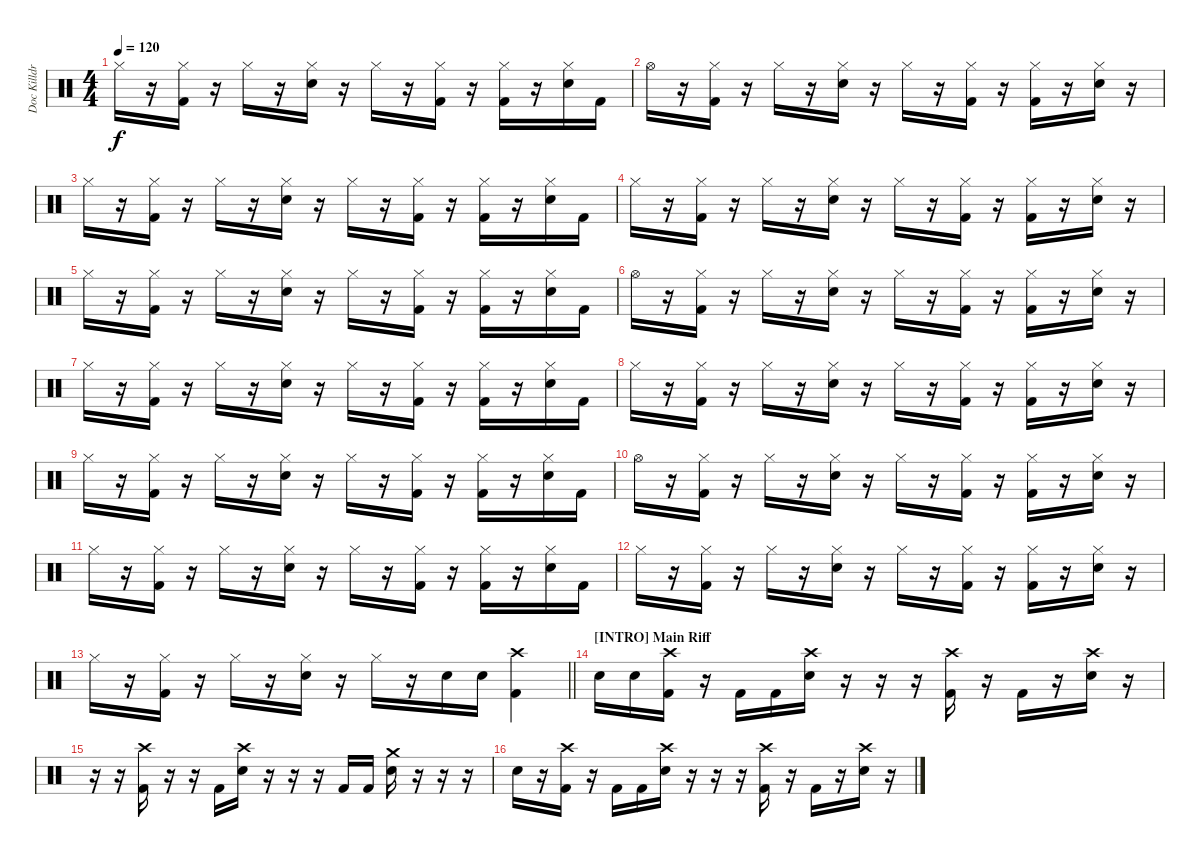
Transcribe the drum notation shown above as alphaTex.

\track ("Doc Killdrums (What else?)" "Doc Killdr") {instrument percussion}
\staff {score}
\articulation defaults
\ts (4 4)
\tempo 120
\clef neutral
\ks c "Hi-Hat (closed)".16{dy f}
r.16 ("Kick (hit) 2" "Hi-Hat (closed)").16 r.16 "Hi-Hat (closed)".16 r.16 ("Snare (hit) 2" "Hi-Hat (closed)").16 r.16 "Hi-Hat (closed)".16 r.16 ("Kick (hit) 2" "Hi-Hat (closed)").16 r.16 ("Kick (hit) 2" "Hi-Hat (closed)").16 r.16 ("Snare (hit) 2" "Hi-Hat (closed)").16 "Kick (hit) 2".16 |
"Hi-Hat (open)".16 r.16 ("Kick (hit) 2" "Hi-Hat (closed)").16 r.16 "Hi-Hat (closed)".16 r.16 ("Snare (hit) 2" "Hi-Hat (closed)").16 r.16 "Hi-Hat (closed)".16 r.16 ("Kick (hit) 2" "Hi-Hat (closed)").16 r.16 ("Kick (hit) 2" "Hi-Hat (closed)").16 r.16 ("Snare (hit) 2" "Hi-Hat (closed)").16 r.16 |
"Hi-Hat (closed)".16 r.16 ("Kick (hit) 2" "Hi-Hat (closed)").16 r.16 "Hi-Hat (closed)".16 r.16 ("Snare (hit) 2" "Hi-Hat (closed)").16 r.16 "Hi-Hat (closed)".16 r.16 ("Kick (hit) 2" "Hi-Hat (closed)").16 r.16 ("Kick (hit) 2" "Hi-Hat (closed)").16 r.16 ("Snare (hit) 2" "Hi-Hat (closed)").16 "Kick (hit) 2".16 |
"Hi-Hat (closed)".16 r.16 ("Kick (hit) 2" "Hi-Hat (closed)").16 r.16 "Hi-Hat (closed)".16 r.16 ("Snare (hit) 2" "Hi-Hat (closed)").16 r.16 "Hi-Hat (closed)".16 r.16 ("Kick (hit) 2" "Hi-Hat (closed)").16 r.16 ("Kick (hit) 2" "Hi-Hat (closed)").16 r.16 ("Snare (hit) 2" "Hi-Hat (closed)").16 r.16 |
"Hi-Hat (closed)".16 r.16 ("Kick (hit) 2" "Hi-Hat (closed)").16 r.16 "Hi-Hat (closed)".16 r.16 ("Snare (hit) 2" "Hi-Hat (closed)").16 r.16 "Hi-Hat (closed)".16 r.16 ("Kick (hit) 2" "Hi-Hat (closed)").16 r.16 ("Kick (hit) 2" "Hi-Hat (closed)").16 r.16 ("Snare (hit) 2" "Hi-Hat (closed)").16 "Kick (hit) 2".16 |
"Hi-Hat (open)".16 r.16 ("Kick (hit) 2" "Hi-Hat (closed)").16 r.16 "Hi-Hat (closed)".16 r.16 ("Snare (hit) 2" "Hi-Hat (closed)").16 r.16 "Hi-Hat (closed)".16 r.16 ("Kick (hit) 2" "Hi-Hat (closed)").16 r.16 ("Kick (hit) 2" "Hi-Hat (closed)").16 r.16 ("Snare (hit) 2" "Hi-Hat (closed)").16 r.16 |
"Hi-Hat (closed)".16 r.16 ("Kick (hit) 2" "Hi-Hat (closed)").16 r.16 "Hi-Hat (closed)".16 r.16 ("Snare (hit) 2" "Hi-Hat (closed)").16 r.16 "Hi-Hat (closed)".16 r.16 ("Kick (hit) 2" "Hi-Hat (closed)").16 r.16 ("Kick (hit) 2" "Hi-Hat (closed)").16 r.16 ("Snare (hit) 2" "Hi-Hat (closed)").16 "Kick (hit) 2".16 |
"Hi-Hat (closed)".16 r.16 ("Kick (hit) 2" "Hi-Hat (closed)").16 r.16 "Hi-Hat (closed)".16 r.16 ("Snare (hit) 2" "Hi-Hat (closed)").16 r.16 "Hi-Hat (closed)".16 r.16 ("Kick (hit) 2" "Hi-Hat (closed)").16 r.16 ("Kick (hit) 2" "Hi-Hat (closed)").16 r.16 ("Snare (hit) 2" "Hi-Hat (closed)").16 r.16 |
"Hi-Hat (closed)".16 r.16 ("Kick (hit) 2" "Hi-Hat (closed)").16 r.16 "Hi-Hat (closed)".16 r.16 ("Snare (hit) 2" "Hi-Hat (closed)").16 r.16 "Hi-Hat (closed)".16 r.16 ("Kick (hit) 2" "Hi-Hat (closed)").16 r.16 ("Kick (hit) 2" "Hi-Hat (closed)").16 r.16 ("Snare (hit) 2" "Hi-Hat (closed)").16 "Kick (hit) 2".16 |
"Hi-Hat (open)".16 r.16 ("Kick (hit) 2" "Hi-Hat (closed)").16 r.16 "Hi-Hat (closed)".16 r.16 ("Snare (hit) 2" "Hi-Hat (closed)").16 r.16 "Hi-Hat (closed)".16 r.16 ("Kick (hit) 2" "Hi-Hat (closed)").16 r.16 ("Kick (hit) 2" "Hi-Hat (closed)").16 r.16 ("Snare (hit) 2" "Hi-Hat (closed)").16 r.16 |
"Hi-Hat (closed)".16 r.16 ("Kick (hit) 2" "Hi-Hat (closed)").16 r.16 "Hi-Hat (closed)".16 r.16 ("Snare (hit) 2" "Hi-Hat (closed)").16 r.16 "Hi-Hat (closed)".16 r.16 ("Kick (hit) 2" "Hi-Hat (closed)").16 r.16 ("Kick (hit) 2" "Hi-Hat (closed)").16 r.16 ("Snare (hit) 2" "Hi-Hat (closed)").16 "Kick (hit) 2".16 |
"Hi-Hat (closed)".16 r.16 ("Kick (hit) 2" "Hi-Hat (closed)").16 r.16 "Hi-Hat (closed)".16 r.16 ("Snare (hit) 2" "Hi-Hat (closed)").16 r.16 "Hi-Hat (closed)".16 r.16 ("Kick (hit) 2" "Hi-Hat (closed)").16 r.16 ("Kick (hit) 2" "Hi-Hat (closed)").16 r.16 ("Snare (hit) 2" "Hi-Hat (closed)").16 r.16 |
\barLineRight lightlight "Hi-Hat (closed)".16
r.16 ("Kick (hit) 2" "Hi-Hat (closed)").16 r.16 "Hi-Hat (closed)".16 r.16 ("Snare (hit) 2" "Hi-Hat (closed)").16 r.16 "Hi-Hat (closed)".16 r.16 "Snare (hit) 2".16 "Snare (hit) 2".16 ("Kick (hit) 2" "Crash high (hit)").4 |
\section ("" "[INTRO] Main Riff")
"Snare (hit) 2".16 "Snare (hit) 2".16 ("Kick (hit) 2" "Crash high (hit)").16 r.16 "Kick (hit) 2".16 "Kick (hit) 2".16 ("Snare (hit) 2" "Crash high (hit)").16 r.16 r.16 r.16 ("Kick (hit) 2" "Crash high (hit)").16 r.16 "Kick (hit) 2".16 r.16 ("Snare (hit) 2" "Crash high (hit)").16 r.16 |
r.16 r.16 ("Kick (hit) 2" "Crash high (hit)").16 r.16 r.16 "Kick (hit) 2".16 ("Snare (hit) 2" "Crash high (hit)").16 r.16 r.16 r.16 "Kick (hit) 2".16 "Kick (hit) 2".16 ("Snare (hit) 2" "Crash medium (hit)").16 r.16 r.16 r.16 |
"Snare (hit) 2".16 r.16 ("Kick (hit) 2" "Crash high (hit)").16 r.16 "Kick (hit) 2".16 "Kick (hit) 2".16 ("Snare (hit) 2" "Crash high (hit)").16 r.16 r.16 r.16 ("Kick (hit) 2" "Crash high (hit)").16 r.16 "Kick (hit) 2".16 r.16 ("Snare (hit) 2" "Crash high (hit)").16 r.16
